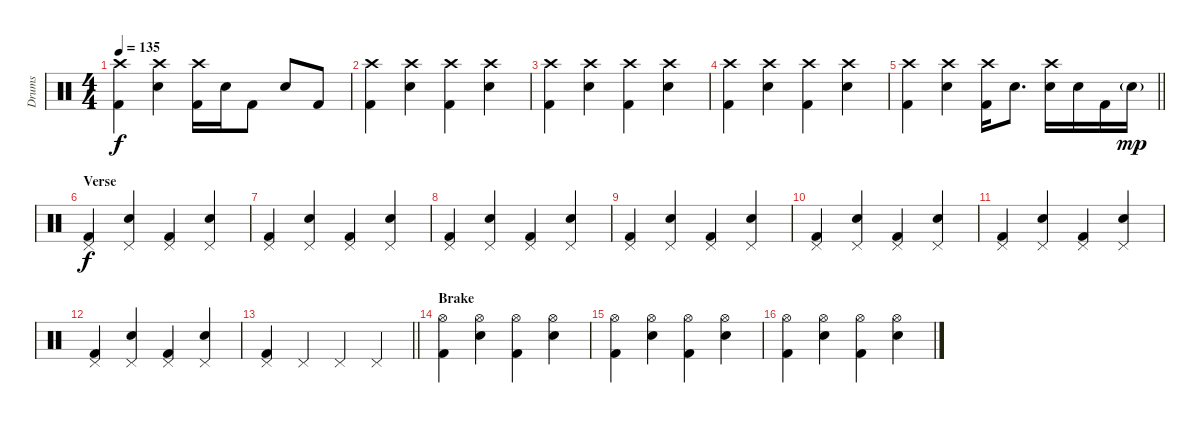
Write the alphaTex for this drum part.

\track ("Drums" "Drums") {instrument percussion}
\staff {score}
\articulation defaults
\ts (4 4)
\tempo 135
\clef neutral
\ks c
("Crash high (hit)" "Kick (hit) 2").4{dy f} ("Crash high (hit)" "Electric Snare (hit)").4 ("Crash high (hit)" "Kick (hit) 2").16 "Electric Snare (hit)".16 "Kick (hit) 2".8 "Electric Snare (hit)".8 "Kick (hit) 2".8 |
("Crash high (hit)" "Kick (hit) 2").4 ("Crash high (hit)" "Electric Snare (hit)").4 ("Crash high (hit)" "Kick (hit) 2").4 ("Crash high (hit)" "Electric Snare (hit)").4 |
("Crash high (hit)" "Kick (hit) 2").4 ("Crash high (hit)" "Electric Snare (hit)").4 ("Crash high (hit)" "Kick (hit) 2").4 ("Crash high (hit)" "Electric Snare (hit)").4 |
("Crash high (hit)" "Kick (hit) 2").4 ("Crash high (hit)" "Electric Snare (hit)").4 ("Crash high (hit)" "Kick (hit) 2").4 ("Crash high (hit)" "Electric Snare (hit)").4 |
\barLineRight lightlight
("Crash high (hit)" "Kick (hit) 2").4 ("Crash high (hit)" "Electric Snare (hit)").4 ("Crash high (hit)" "Kick (hit) 2").16 "Electric Snare (hit)".8{d} ("Crash high (hit)" "Electric Snare (hit)").16 "Electric Snare (hit)".16 "Kick (hit) 2".16 "Electric Snare (hit)"{g}.16{dy mp} |
\section ("" "Verse")
("Pedal Hi-Hat (hit)" "Kick (hit) 2").4{dy f} ("Pedal Hi-Hat (hit)" "Electric Snare (hit)").4 ("Pedal Hi-Hat (hit)" "Kick (hit) 2").4 ("Pedal Hi-Hat (hit)" "Electric Snare (hit)").4 |
("Pedal Hi-Hat (hit)" "Kick (hit) 2").4 ("Pedal Hi-Hat (hit)" "Electric Snare (hit)").4 ("Pedal Hi-Hat (hit)" "Kick (hit) 2").4 ("Pedal Hi-Hat (hit)" "Electric Snare (hit)").4 |
("Pedal Hi-Hat (hit)" "Kick (hit) 2").4 ("Pedal Hi-Hat (hit)" "Electric Snare (hit)").4 ("Pedal Hi-Hat (hit)" "Kick (hit) 2").4 ("Pedal Hi-Hat (hit)" "Electric Snare (hit)").4 |
("Pedal Hi-Hat (hit)" "Kick (hit) 2").4 ("Pedal Hi-Hat (hit)" "Electric Snare (hit)").4 ("Pedal Hi-Hat (hit)" "Kick (hit) 2").4 ("Pedal Hi-Hat (hit)" "Electric Snare (hit)").4 |
("Pedal Hi-Hat (hit)" "Kick (hit) 2").4 ("Pedal Hi-Hat (hit)" "Electric Snare (hit)").4 ("Pedal Hi-Hat (hit)" "Kick (hit) 2").4 ("Pedal Hi-Hat (hit)" "Electric Snare (hit)").4 |
("Pedal Hi-Hat (hit)" "Kick (hit) 2").4 ("Pedal Hi-Hat (hit)" "Electric Snare (hit)").4 ("Pedal Hi-Hat (hit)" "Kick (hit) 2").4 ("Pedal Hi-Hat (hit)" "Electric Snare (hit)").4 |
("Pedal Hi-Hat (hit)" "Kick (hit) 2").4 ("Pedal Hi-Hat (hit)" "Electric Snare (hit)").4 ("Pedal Hi-Hat (hit)" "Kick (hit) 2").4 ("Pedal Hi-Hat (hit)" "Electric Snare (hit)").4 |
\barLineRight lightlight
("Pedal Hi-Hat (hit)" "Kick (hit) 2").4 "Pedal Hi-Hat (hit)".4 "Pedal Hi-Hat (hit)".4 "Pedal Hi-Hat (hit)".4 |
\section ("" "Brake")
("Hi-Hat (open)" "Kick (hit) 2").4 ("Hi-Hat (open)" "Electric Snare (hit)").4 ("Hi-Hat (open)" "Kick (hit) 2").4 ("Hi-Hat (open)" "Electric Snare (hit)").4 |
("Hi-Hat (open)" "Kick (hit) 2").4 ("Hi-Hat (open)" "Electric Snare (hit)").4 ("Hi-Hat (open)" "Kick (hit) 2").4 ("Hi-Hat (open)" "Electric Snare (hit)").4 |
("Hi-Hat (open)" "Kick (hit) 2").4 ("Hi-Hat (open)" "Electric Snare (hit)").4 ("Hi-Hat (open)" "Kick (hit) 2").4 ("Hi-Hat (open)" "Electric Snare (hit)").4
